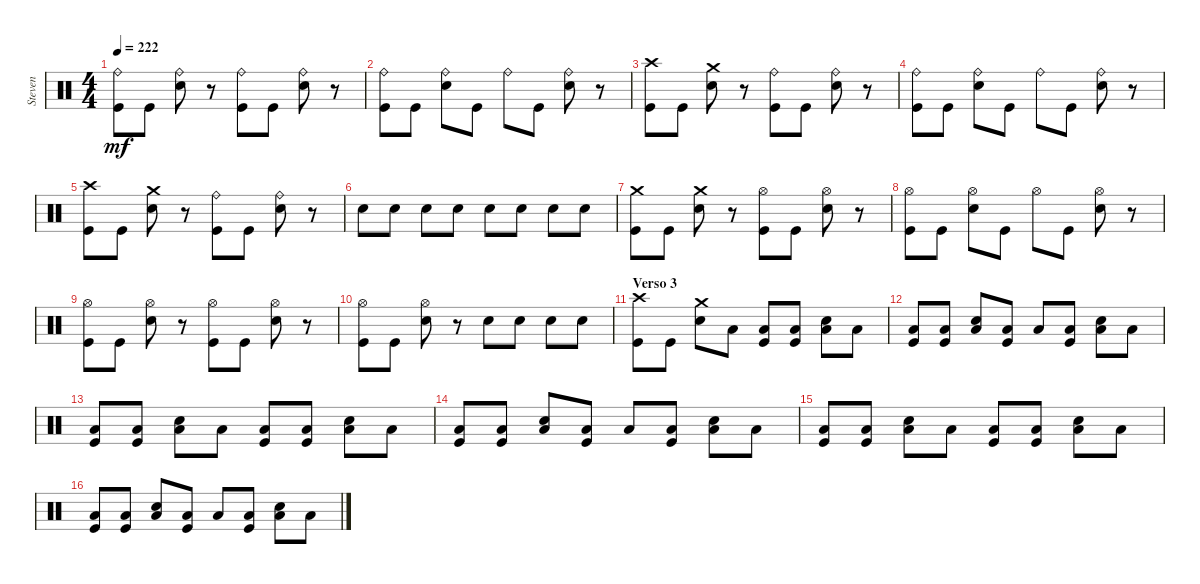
\track ("Steven" "Steven") {instrument percussion}
\staff {score}
\articulation defaults
\ts (4 4)
\tempo 222
\clef neutral
\ks c
("Kick (hit)" "Ride (bell)").8{dy mf} "Kick (hit)".8 ("Snare (hit) 2" "Ride (bell)").8 r.8 ("Kick (hit)" "Ride (bell)").8 "Kick (hit)".8 ("Snare (hit) 2" "Ride (bell)").8 r.8 |
("Kick (hit)" "Ride (bell)").8 "Kick (hit)".8 ("Snare (hit) 2" "Ride (bell)").8 "Kick (hit)".8 "Ride (bell)".8 "Kick (hit)".8 ("Snare (hit) 2" "Ride (bell)").8 r.8 |
("Kick (hit)" "Crash high (hit)").8 "Kick (hit)".8 ("Snare (hit) 2" "Crash medium (hit)").8 r.8 ("Kick (hit)" "Ride (bell)").8 "Kick (hit)".8 ("Snare (hit) 2" "Ride (bell)").8 r.8 |
("Kick (hit)" "Ride (bell)").8 "Kick (hit)".8 ("Snare (hit) 2" "Ride (bell)").8 "Kick (hit)".8 "Ride (bell)".8 "Kick (hit)".8 ("Snare (hit) 2" "Ride (bell)").8 r.8 |
("Kick (hit)" "Crash high (hit)").8 "Kick (hit)".8 ("Snare (hit) 2" "Crash medium (hit)").8 r.8 ("Kick (hit)" "Ride (bell)").8 "Kick (hit)".8 ("Snare (hit) 2" "Ride (bell)").8 r.8 |
"Snare (hit) 2".8 "Snare (hit) 2".8 "Snare (hit) 2".8 "Snare (hit) 2".8 "Snare (hit) 2".8 "Snare (hit) 2".8 "Snare (hit) 2".8 "Snare (hit) 2".8 |
("Kick (hit)" "Crash medium (hit)").8 "Kick (hit)".8 ("Snare (hit) 2" "Crash medium (hit)").8 r.8 ("Kick (hit)" "Hi-Hat (open)").8 "Kick (hit)".8 ("Snare (hit) 2" "Hi-Hat (open)").8 r.8 |
("Kick (hit)" "Hi-Hat (open)").8 "Kick (hit)".8 ("Snare (hit) 2" "Hi-Hat (open)").8 "Kick (hit)".8 "Hi-Hat (open)".8 "Kick (hit)".8 ("Snare (hit) 2" "Hi-Hat (open)").8 r.8 |
("Kick (hit)" "Hi-Hat (open)").8 "Kick (hit)".8 ("Snare (hit) 2" "Hi-Hat (open)").8 r.8 ("Kick (hit)" "Hi-Hat (open)").8 "Kick (hit)".8 ("Snare (hit) 2" "Hi-Hat (open)").8 r.8 |
("Kick (hit)" "Hi-Hat (open)").8 "Kick (hit)".8 ("Snare (hit) 2" "Hi-Hat (open)").8 r.8 "Snare (hit) 2".8 "Snare (hit) 2".8 "Snare (hit) 2".8 "Snare (hit) 2".8 |
\section ("" "Verso 3")
("Kick (hit)" "Crash high (hit)").8 "Kick (hit)".8 ("Snare (hit) 2" "Crash medium (hit)").8 "Low Tom (hit)".8 ("Kick (hit)" "Low Tom (hit)").8 ("Kick (hit)" "Low Tom (hit)").8 ("Snare (hit) 2" "Low Tom (hit)").8 "Low Tom (hit)".8 |
("Kick (hit)" "Low Tom (hit)").8 ("Kick (hit)" "Low Tom (hit)").8 ("Snare (hit) 2" "Low Tom (hit)").8 ("Kick (hit)" "Low Tom (hit)").8 "Low Tom (hit)".8 ("Kick (hit)" "Low Tom (hit)").8 ("Snare (hit) 2" "Low Tom (hit)").8 "Low Tom (hit)".8 |
("Kick (hit)" "Low Tom (hit)").8 ("Kick (hit)" "Low Tom (hit)").8 ("Snare (hit) 2" "Low Tom (hit)").8 "Low Tom (hit)".8 ("Kick (hit)" "Low Tom (hit)").8 ("Kick (hit)" "Low Tom (hit)").8 ("Snare (hit) 2" "Low Tom (hit)").8 "Low Tom (hit)".8 |
("Kick (hit)" "Low Tom (hit)").8 ("Kick (hit)" "Low Tom (hit)").8 ("Snare (hit) 2" "Low Tom (hit)").8 ("Kick (hit)" "Low Tom (hit)").8 "Low Tom (hit)".8 ("Kick (hit)" "Low Tom (hit)").8 ("Snare (hit) 2" "Low Tom (hit)").8 "Low Tom (hit)".8 |
("Kick (hit)" "Low Tom (hit)").8 ("Kick (hit)" "Low Tom (hit)").8 ("Snare (hit) 2" "Low Tom (hit)").8 "Low Tom (hit)".8 ("Kick (hit)" "Low Tom (hit)").8 ("Kick (hit)" "Low Tom (hit)").8 ("Snare (hit) 2" "Low Tom (hit)").8 "Low Tom (hit)".8 |
("Kick (hit)" "Low Tom (hit)").8 ("Kick (hit)" "Low Tom (hit)").8 ("Snare (hit) 2" "Low Tom (hit)").8 ("Kick (hit)" "Low Tom (hit)").8 "Low Tom (hit)".8 ("Kick (hit)" "Low Tom (hit)").8 ("Snare (hit) 2" "Low Tom (hit)").8 "Low Tom (hit)".8
